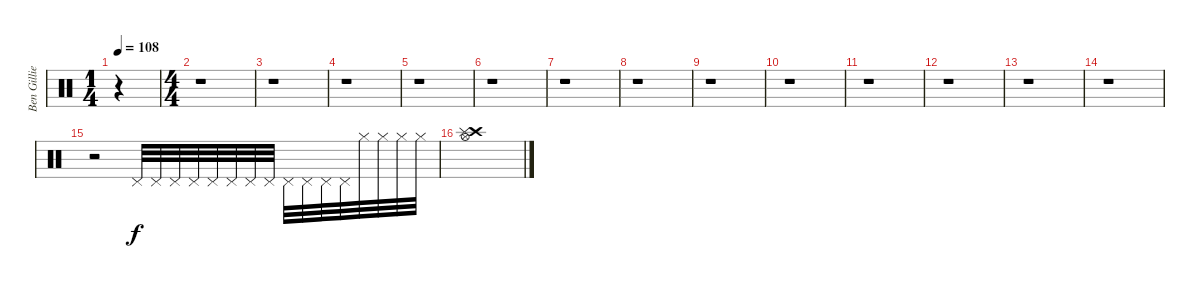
\track ("Ben Gillies (percus)" "Ben Gillie") {instrument percussion}
\staff {score}
\articulation defaults
\ts (1 4)
\tempo 108
\clef neutral
\ks c
r.4{dy f} |
\ts (4 4)
r.1 |
r.1 |
r.1 |
r.1 |
r.1 |
r.1 |
r.1 |
r.1 |
r.1 |
r.1 |
r.1 |
r.1 |
r.1 |
r.2 "Pedal Hi-Hat (hit)".32 "Pedal Hi-Hat (hit)".32 "Pedal Hi-Hat (hit)".32 "Pedal Hi-Hat (hit)".32 "Pedal Hi-Hat (hit)".32 "Pedal Hi-Hat (hit)".32 "Pedal Hi-Hat (hit)".32 "Pedal Hi-Hat (hit)".32 "Pedal Hi-Hat (hit)".32 "Pedal Hi-Hat (hit)".32 "Pedal Hi-Hat (hit)".32 "Pedal Hi-Hat (hit)".32 "Hi-Hat (closed)".32 "Hi-Hat (closed)".32 "Hi-Hat (closed)".32 "Hi-Hat (closed)".32 |
("Crash high (hit)" "Splash (hit)" "Hi-Hat (open)").1
